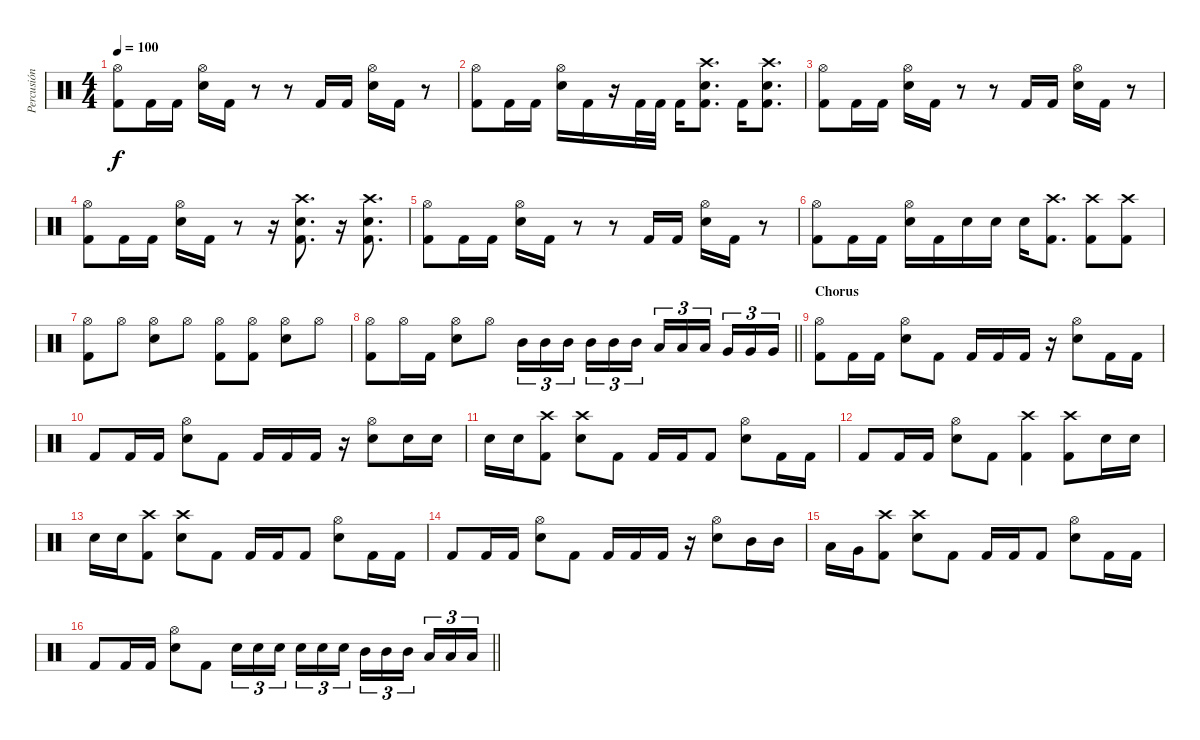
\track ("Percusión" "Percusión") {instrument percussion}
\staff {score}
\articulation defaults
\ts (4 4)
\tempo 100
\clef neutral
\ks c
("Hi-Hat (open)" "Kick (hit) 2").8{dy f} "Kick (hit) 2".16 "Kick (hit) 2".16 ("Hi-Hat (open)" "Snare (hit) 2").16 "Kick (hit) 2".16 r.8 r.8 "Kick (hit) 2".16 "Kick (hit) 2".16 ("Hi-Hat (open)" "Snare (hit) 2").16 "Kick (hit) 2".16 r.8 |
("Hi-Hat (open)" "Kick (hit) 2").8 "Kick (hit) 2".16 "Kick (hit) 2".16 ("Hi-Hat (open)" "Snare (hit) 2").16 "Kick (hit) 2".16 r.16 "Kick (hit) 2".32 "Kick (hit) 2".32 "Kick (hit) 2".16 ("Crash high (hit)" "Snare (hit) 2" "Kick (hit) 2").8{d} "Kick (hit) 2".16 ("Crash high (hit)" "Snare (hit) 2" "Kick (hit) 2").8{d} |
("Hi-Hat (open)" "Kick (hit) 2").8 "Kick (hit) 2".16 "Kick (hit) 2".16 ("Hi-Hat (open)" "Snare (hit) 2").16 "Kick (hit) 2".16 r.8 r.8 "Kick (hit) 2".16 "Kick (hit) 2".16 ("Hi-Hat (open)" "Snare (hit) 2").16 "Kick (hit) 2".16 r.8 |
("Hi-Hat (open)" "Kick (hit) 2").8 "Kick (hit) 2".16 "Kick (hit) 2".16 ("Hi-Hat (open)" "Snare (hit) 2").16 "Kick (hit) 2".16 r.8 r.16 ("Crash high (hit)" "Snare (hit) 2" "Kick (hit) 2").8{d} r.16 ("Crash high (hit)" "Snare (hit) 2" "Kick (hit) 2").8{d} |
("Hi-Hat (open)" "Kick (hit) 2").8 "Kick (hit) 2".16 "Kick (hit) 2".16 ("Hi-Hat (open)" "Snare (hit) 2").16 "Kick (hit) 2".16 r.8 r.8 "Kick (hit) 2".16 "Kick (hit) 2".16 ("Hi-Hat (open)" "Snare (hit) 2").16 "Kick (hit) 2".16 r.8 |
("Hi-Hat (open)" "Kick (hit) 2").8 "Kick (hit) 2".16 "Kick (hit) 2".16 ("Hi-Hat (open)" "Snare (hit) 2").16 "Kick (hit) 2".16 "Snare (hit) 2".16 "Snare (hit) 2".16 "Snare (hit) 2".16 ("Crash high (hit)" "Kick (hit) 2").8{d} ("Crash high (hit)" "Kick (hit) 2").8 ("Crash high (hit)" "Kick (hit) 2").8 |
("Hi-Hat (open)" "Kick (hit) 2").8 "Hi-Hat (open)".8 ("Hi-Hat (open)" "Snare (hit) 2").8 "Hi-Hat (open)".8 ("Hi-Hat (open)" "Kick (hit) 2").8 ("Hi-Hat (open)" "Kick (hit) 2").8 ("Hi-Hat (open)" "Snare (hit) 2").8 "Hi-Hat (open)".8 |
\barLineRight lightlight
("Hi-Hat (open)" "Kick (hit) 2").8 "Hi-Hat (open)".16 "Kick (hit) 2".16 ("Hi-Hat (open)" "Snare (hit) 2").8 "Hi-Hat (open)".8 "Mid Tom (hit)".16{tu (3 2)} "Mid Tom (hit)".16{tu (3 2)} "Mid Tom (hit)".16{tu (3 2) beam splitsecondary} "Mid Tom (hit)".16{tu (3 2)} "Mid Tom (hit)".16{tu (3 2)} "Mid Tom (hit)".16{tu (3 2)} "Low Tom (hit)".16{tu (3 2)} "Low Tom (hit)".16{tu (3 2)} "Low Tom (hit)".16{tu (3 2) beam splitsecondary} "Very Low Tom (hit)".16{tu (3 2)} "Very Low Tom (hit)".16{tu (3 2)} "Very Low Tom (hit)".16{tu (3 2)} |
\section ("" "Chorus")
("Hi-Hat (open)" "Kick (hit) 2").8 "Kick (hit) 2".16 "Kick (hit) 2".16 ("Hi-Hat (open)" "Snare (hit) 2").8 "Kick (hit) 2".8 "Kick (hit) 2".16 "Kick (hit) 2".16 "Kick (hit) 2".16 r.16 ("Hi-Hat (open)" "Snare (hit) 2").8 "Kick (hit) 2".16 "Kick (hit) 2".16 |
"Kick (hit) 2".8 "Kick (hit) 2".16 "Kick (hit) 2".16 ("Hi-Hat (open)" "Snare (hit) 2").8 "Kick (hit) 2".8 "Kick (hit) 2".16 "Kick (hit) 2".16 "Kick (hit) 2".16 r.16 ("Hi-Hat (open)" "Snare (hit) 2").8 "Snare (hit) 2".16 "Snare (hit) 2".16 |
"Snare (hit) 2".16 "Snare (hit) 2".16 ("Crash high (hit)" "Kick (hit) 2").8 ("Crash high (hit)" "Snare (hit) 2").8 "Kick (hit) 2".8 "Kick (hit) 2".16 "Kick (hit) 2".16 "Kick (hit) 2".8 ("Hi-Hat (open)" "Snare (hit) 2").8 "Kick (hit) 2".16 "Kick (hit) 2".16 |
"Kick (hit) 2".8 "Kick (hit) 2".16 "Kick (hit) 2".16 ("Hi-Hat (open)" "Snare (hit) 2").8 "Kick (hit) 2".8 ("Crash high (hit)" "Kick (hit) 2").4 ("Crash high (hit)" "Kick (hit) 2").8 "Snare (hit) 2".16 "Snare (hit) 2".16 |
"Snare (hit) 2".16 "Snare (hit) 2".16 ("Crash high (hit)" "Kick (hit) 2").8 ("Crash high (hit)" "Snare (hit) 2").8 "Kick (hit) 2".8 "Kick (hit) 2".16 "Kick (hit) 2".16 "Kick (hit) 2".8 ("Hi-Hat (open)" "Snare (hit) 2").8 "Kick (hit) 2".16 "Kick (hit) 2".16 |
"Kick (hit) 2".8 "Kick (hit) 2".16 "Kick (hit) 2".16 ("Hi-Hat (open)" "Snare (hit) 2").8 "Kick (hit) 2".8 "Kick (hit) 2".16 "Kick (hit) 2".16 "Kick (hit) 2".16 r.16 ("Hi-Hat (open)" "Snare (hit) 2").8 "Mid Tom (hit)".16 "Mid Tom (hit)".16 |
"Low Tom (hit)".16 "Very Low Tom (hit)".16 ("Crash high (hit)" "Kick (hit) 2").8 ("Crash high (hit)" "Snare (hit) 2").8 "Kick (hit) 2".8 "Kick (hit) 2".16 "Kick (hit) 2".16 "Kick (hit) 2".8 ("Hi-Hat (open)" "Snare (hit) 2").8 "Kick (hit) 2".16 "Kick (hit) 2".16 |
\barLineRight lightlight "Kick (hit) 2".8 "Kick (hit) 2".16 "Kick (hit) 2".16
("Hi-Hat (open)" "Snare (hit) 2").8 "Kick (hit) 2".8 "Snare (hit) 2".16{tu (3 2)} "Snare (hit) 2".16{tu (3 2)} "Snare (hit) 2".16{tu (3 2) beam splitsecondary} "Snare (hit) 2".16{tu (3 2)} "Snare (hit) 2".16{tu (3 2)} "Snare (hit) 2".16{tu (3 2)} "Mid Tom (hit)".16{tu (3 2)} "Mid Tom (hit)".16{tu (3 2)} "Mid Tom (hit)".16{tu (3 2) beam splitsecondary} "Low Tom (hit)".16{tu (3 2)} "Low Tom (hit)".16{tu (3 2)} "Low Tom (hit)".16{tu (3 2)}
